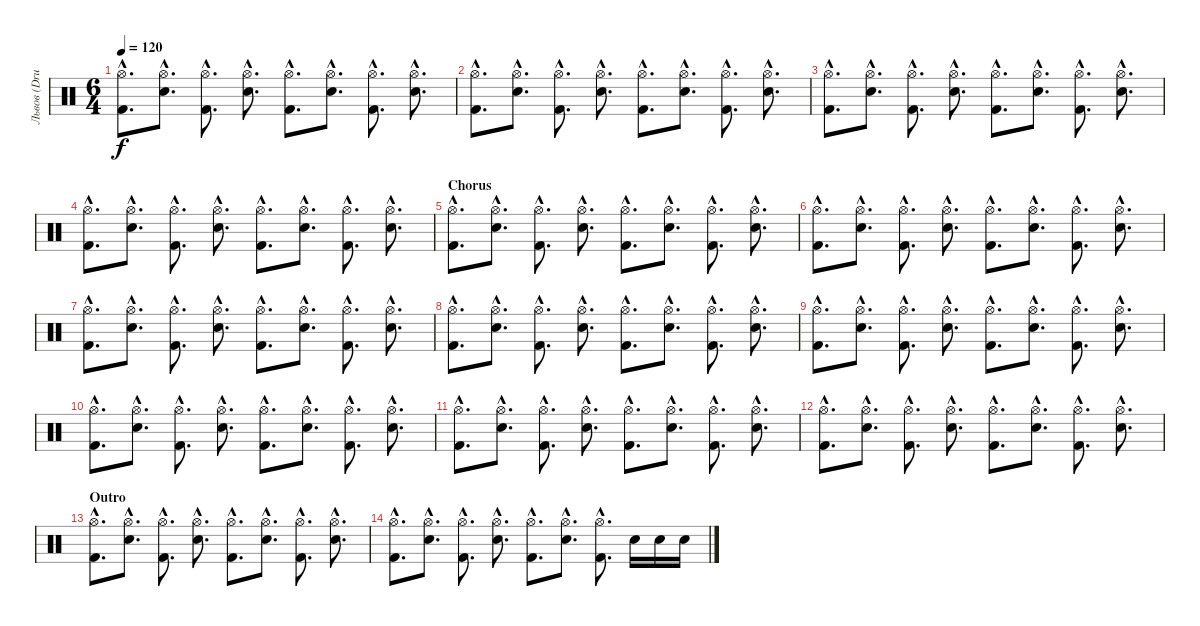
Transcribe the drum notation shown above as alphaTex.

\track ("Львов (Drums)" "Львов (Dru") {instrument percussion}
\staff {score}
\articulation defaults
\ts (6 4)
\tempo 120
\clef neutral
\ks c
("Kick (hit) 2"{hac} "Hi-Hat (open)"{hac}).8{d dy f} ("Electric Snare (hit)"{hac} "Hi-Hat (open)"{hac}).8{d} ("Kick (hit) 2"{hac} "Hi-Hat (open)"{hac}).8{d} ("Electric Snare (hit)"{hac} "Hi-Hat (open)"{hac}).8{d} ("Kick (hit) 2"{hac} "Hi-Hat (open)"{hac}).8{d} ("Electric Snare (hit)"{hac} "Hi-Hat (open)"{hac}).8{d} ("Kick (hit) 2"{hac} "Hi-Hat (open)"{hac}).8{d} ("Electric Snare (hit)"{hac} "Hi-Hat (open)"{hac}).8{d} |
("Kick (hit) 2"{hac} "Hi-Hat (open)"{hac}).8{d} ("Electric Snare (hit)"{hac} "Hi-Hat (open)"{hac}).8{d} ("Kick (hit) 2"{hac} "Hi-Hat (open)"{hac}).8{d} ("Electric Snare (hit)"{hac} "Hi-Hat (open)"{hac}).8{d} ("Kick (hit) 2"{hac} "Hi-Hat (open)"{hac}).8{d} ("Electric Snare (hit)"{hac} "Hi-Hat (open)"{hac}).8{d} ("Kick (hit) 2"{hac} "Hi-Hat (open)"{hac}).8{d} ("Electric Snare (hit)"{hac} "Hi-Hat (open)"{hac}).8{d} |
("Kick (hit) 2"{hac} "Hi-Hat (open)"{hac}).8{d} ("Electric Snare (hit)"{hac} "Hi-Hat (open)"{hac}).8{d} ("Kick (hit) 2"{hac} "Hi-Hat (open)"{hac}).8{d} ("Electric Snare (hit)"{hac} "Hi-Hat (open)"{hac}).8{d} ("Kick (hit) 2"{hac} "Hi-Hat (open)"{hac}).8{d} ("Electric Snare (hit)"{hac} "Hi-Hat (open)"{hac}).8{d} ("Kick (hit) 2"{hac} "Hi-Hat (open)"{hac}).8{d} ("Electric Snare (hit)"{hac} "Hi-Hat (open)"{hac}).8{d} |
("Kick (hit) 2"{hac} "Hi-Hat (open)"{hac}).8{d} ("Electric Snare (hit)"{hac} "Hi-Hat (open)"{hac}).8{d} ("Kick (hit) 2"{hac} "Hi-Hat (open)"{hac}).8{d} ("Electric Snare (hit)"{hac} "Hi-Hat (open)"{hac}).8{d} ("Kick (hit) 2"{hac} "Hi-Hat (open)"{hac}).8{d} ("Electric Snare (hit)"{hac} "Hi-Hat (open)"{hac}).8{d} ("Kick (hit) 2"{hac} "Hi-Hat (open)"{hac}).8{d} ("Electric Snare (hit)"{hac} "Hi-Hat (open)"{hac}).8{d} |
\section ("" "Chorus")
("Kick (hit) 2"{hac} "Hi-Hat (open)"{hac}).8{d} ("Electric Snare (hit)"{hac} "Hi-Hat (open)"{hac}).8{d} ("Kick (hit) 2"{hac} "Hi-Hat (open)"{hac}).8{d} ("Electric Snare (hit)"{hac} "Hi-Hat (open)"{hac}).8{d} ("Kick (hit) 2"{hac} "Hi-Hat (open)"{hac}).8{d} ("Electric Snare (hit)"{hac} "Hi-Hat (open)"{hac}).8{d} ("Kick (hit) 2"{hac} "Hi-Hat (open)"{hac}).8{d} ("Electric Snare (hit)"{hac} "Hi-Hat (open)"{hac}).8{d} |
("Kick (hit) 2"{hac} "Hi-Hat (open)"{hac}).8{d} ("Electric Snare (hit)"{hac} "Hi-Hat (open)"{hac}).8{d} ("Kick (hit) 2"{hac} "Hi-Hat (open)"{hac}).8{d} ("Electric Snare (hit)"{hac} "Hi-Hat (open)"{hac}).8{d} ("Kick (hit) 2"{hac} "Hi-Hat (open)"{hac}).8{d} ("Electric Snare (hit)"{hac} "Hi-Hat (open)"{hac}).8{d} ("Kick (hit) 2"{hac} "Hi-Hat (open)"{hac}).8{d} ("Electric Snare (hit)"{hac} "Hi-Hat (open)"{hac}).8{d} |
("Kick (hit) 2"{hac} "Hi-Hat (open)"{hac}).8{d} ("Electric Snare (hit)"{hac} "Hi-Hat (open)"{hac}).8{d} ("Kick (hit) 2"{hac} "Hi-Hat (open)"{hac}).8{d} ("Electric Snare (hit)"{hac} "Hi-Hat (open)"{hac}).8{d} ("Kick (hit) 2"{hac} "Hi-Hat (open)"{hac}).8{d} ("Electric Snare (hit)"{hac} "Hi-Hat (open)"{hac}).8{d} ("Kick (hit) 2"{hac} "Hi-Hat (open)"{hac}).8{d} ("Electric Snare (hit)"{hac} "Hi-Hat (open)"{hac}).8{d} |
("Kick (hit) 2"{hac} "Hi-Hat (open)"{hac}).8{d} ("Electric Snare (hit)"{hac} "Hi-Hat (open)"{hac}).8{d} ("Kick (hit) 2"{hac} "Hi-Hat (open)"{hac}).8{d} ("Electric Snare (hit)"{hac} "Hi-Hat (open)"{hac}).8{d} ("Kick (hit) 2"{hac} "Hi-Hat (open)"{hac}).8{d} ("Electric Snare (hit)"{hac} "Hi-Hat (open)"{hac}).8{d} ("Kick (hit) 2"{hac} "Hi-Hat (open)"{hac}).8{d} ("Electric Snare (hit)"{hac} "Hi-Hat (open)"{hac}).8{d} |
("Kick (hit) 2"{hac} "Hi-Hat (open)"{hac}).8{d} ("Electric Snare (hit)"{hac} "Hi-Hat (open)"{hac}).8{d} ("Kick (hit) 2"{hac} "Hi-Hat (open)"{hac}).8{d} ("Electric Snare (hit)"{hac} "Hi-Hat (open)"{hac}).8{d} ("Kick (hit) 2"{hac} "Hi-Hat (open)"{hac}).8{d} ("Electric Snare (hit)"{hac} "Hi-Hat (open)"{hac}).8{d} ("Kick (hit) 2"{hac} "Hi-Hat (open)"{hac}).8{d} ("Electric Snare (hit)"{hac} "Hi-Hat (open)"{hac}).8{d} |
("Kick (hit) 2"{hac} "Hi-Hat (open)"{hac}).8{d} ("Electric Snare (hit)"{hac} "Hi-Hat (open)"{hac}).8{d} ("Kick (hit) 2"{hac} "Hi-Hat (open)"{hac}).8{d} ("Electric Snare (hit)"{hac} "Hi-Hat (open)"{hac}).8{d} ("Kick (hit) 2"{hac} "Hi-Hat (open)"{hac}).8{d} ("Electric Snare (hit)"{hac} "Hi-Hat (open)"{hac}).8{d} ("Kick (hit) 2"{hac} "Hi-Hat (open)"{hac}).8{d} ("Electric Snare (hit)"{hac} "Hi-Hat (open)"{hac}).8{d} |
("Kick (hit) 2"{hac} "Hi-Hat (open)"{hac}).8{d} ("Electric Snare (hit)"{hac} "Hi-Hat (open)"{hac}).8{d} ("Kick (hit) 2"{hac} "Hi-Hat (open)"{hac}).8{d} ("Electric Snare (hit)"{hac} "Hi-Hat (open)"{hac}).8{d} ("Kick (hit) 2"{hac} "Hi-Hat (open)"{hac}).8{d} ("Electric Snare (hit)"{hac} "Hi-Hat (open)"{hac}).8{d} ("Kick (hit) 2"{hac} "Hi-Hat (open)"{hac}).8{d} ("Electric Snare (hit)"{hac} "Hi-Hat (open)"{hac}).8{d} |
("Kick (hit) 2"{hac} "Hi-Hat (open)"{hac}).8{d} ("Electric Snare (hit)"{hac} "Hi-Hat (open)"{hac}).8{d} ("Kick (hit) 2"{hac} "Hi-Hat (open)"{hac}).8{d} ("Electric Snare (hit)"{hac} "Hi-Hat (open)"{hac}).8{d} ("Kick (hit) 2"{hac} "Hi-Hat (open)"{hac}).8{d} ("Electric Snare (hit)"{hac} "Hi-Hat (open)"{hac}).8{d} ("Kick (hit) 2"{hac} "Hi-Hat (open)"{hac}).8{d} ("Electric Snare (hit)"{hac} "Hi-Hat (open)"{hac}).8{d} |
\section ("" "Outro")
("Kick (hit) 2"{hac} "Hi-Hat (open)"{hac}).8{d} ("Electric Snare (hit)"{hac} "Hi-Hat (open)"{hac}).8{d} ("Kick (hit) 2"{hac} "Hi-Hat (open)"{hac}).8{d} ("Electric Snare (hit)"{hac} "Hi-Hat (open)"{hac}).8{d} ("Kick (hit) 2"{hac} "Hi-Hat (open)"{hac}).8{d} ("Electric Snare (hit)"{hac} "Hi-Hat (open)"{hac}).8{d} ("Kick (hit) 2"{hac} "Hi-Hat (open)"{hac}).8{d} ("Electric Snare (hit)"{hac} "Hi-Hat (open)"{hac}).8{d} |
("Kick (hit) 2"{hac} "Hi-Hat (open)"{hac}).8{d} ("Electric Snare (hit)"{hac} "Hi-Hat (open)"{hac}).8{d} ("Kick (hit) 2"{hac} "Hi-Hat (open)"{hac}).8{d} ("Electric Snare (hit)"{hac} "Hi-Hat (open)"{hac}).8{d} ("Kick (hit) 2"{hac} "Hi-Hat (open)"{hac}).8{d} ("Electric Snare (hit)"{hac} "Hi-Hat (open)"{hac}).8{d} ("Kick (hit) 2"{hac} "Hi-Hat (open)"{hac}).8{d} "Electric Snare (hit)".16 "Electric Snare (hit)".16 "Electric Snare (hit)".16
